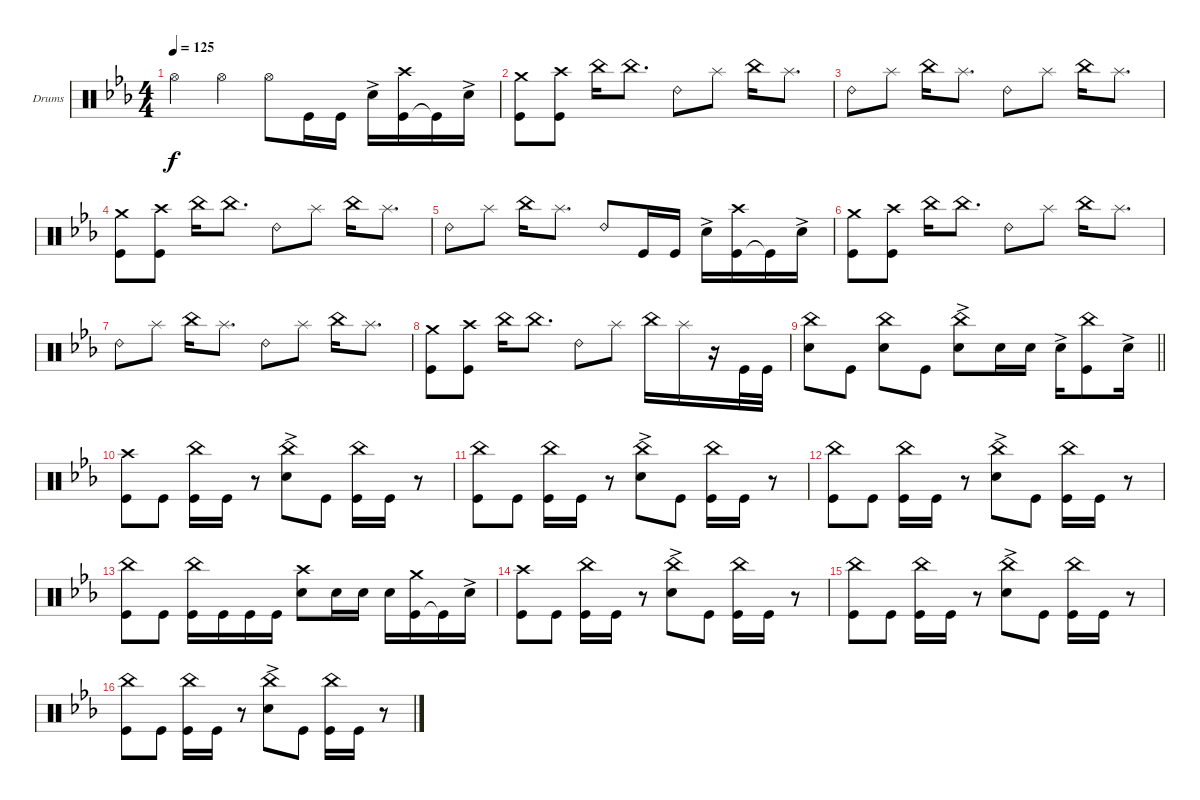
\bracketExtendMode groupsimilarinstruments
\firstSystemTrackNameOrientation horizontal
\otherSystemsTrackNameOrientation horizontal
\track ("Drumkit" "Drums") {instrument percussion}
\staff {score}
\articulation defaults
\ts (4 4)
\tempo 125
\clef neutral
\ks cminor "Hi-Hat (open)".4{dy f} "Hi-Hat (open)".4 "Hi-Hat (open)".8 "Kick (hit)".16 "Kick (hit)".16 "Snare (hit) 2"{ac}.16
("Kick (hit)" "Crash high (hit)").16 "Kick (hit)"{t}.16 "Snare (hit) 2"{ac}.16 |
("Crash medium (hit)" "Kick (hit)").8 ("Crash high (hit)" "Kick (hit)").8 "China (hit)".16 "China (hit)".8{d} "Ride (bell) 2".8 "Splash (hit)".8 "China (hit)".16 "Splash (hit)".8{d} |
"Ride (bell) 2".8 "Splash (hit)".8 "China (hit)".16 "Splash (hit)".8{d} "Ride (bell) 2".8 "Splash (hit)".8 "China (hit)".16 "Splash (hit)".8{d} |
("Crash medium (hit)" "Kick (hit)").8 ("Crash high (hit)" "Kick (hit)").8 "China (hit)".16 "China (hit)".8{d} "Ride (bell) 2".8 "Splash (hit)".8 "China (hit)".16 "Splash (hit)".8{d} |
"Ride (bell) 2".8 "Splash (hit)".8 "China (hit)".16 "Splash (hit)".8{d} "Ride (bell) 2".8 "Kick (hit)".16 "Kick (hit)".16 "Snare (hit) 2"{ac}.16 ("Kick (hit)" "Crash high (hit)").16 "Kick (hit)"{t}.16 "Snare (hit) 2"{ac}.16 |
("Crash medium (hit)" "Kick (hit)").8 ("Crash high (hit)" "Kick (hit)").8 "China (hit)".16 "China (hit)".8{d} "Ride (bell) 2".8 "Splash (hit)".8 "China (hit)".16 "Splash (hit)".8{d} |
"Ride (bell) 2".8 "Splash (hit)".8 "China (hit)".16 "Splash (hit)".8{d} "Ride (bell) 2".8 "Splash (hit)".8 "China (hit)".16 "Splash (hit)".8{d} |
("Crash medium (hit)" "Kick (hit)").8 ("Crash high (hit)" "Kick (hit)").8 "China (hit)".16 "China (hit)".8{d} "Ride (bell) 2".8 "Splash (hit)".8 "China (hit)".16 "Splash (hit)".16 r.16 "Kick (hit)".32 "Kick (hit)".32 |
\barLineRight lightlight
("Snare (hit) 2" "China (hit)").8 "Kick (hit)".8 ("Snare (hit) 2" "China (hit)").8 "Kick (hit)".8 ("Snare (hit) 2"{ac} "China (hit)").8 "Snare (hit) 2".16 "Snare (hit) 2".16 "Snare (hit) 2"{ac}.16 ("Kick (hit)" "China (hit)").8 "Snare (hit) 2"{ac}.16 |
("Kick (hit)" "Crash high (hit)").8 "Kick (hit)".8 ("Kick (hit)" "China (hit)").16 "Kick (hit)".16 r.8 ("Snare (hit) 2"{ac} "China (hit)").8 "Kick (hit)".8 ("Kick (hit)" "China (hit)").16 "Kick (hit)".16 r.8 |
("Kick (hit)" "China (hit)").8 "Kick (hit)".8 ("Kick (hit)" "China (hit)").16 "Kick (hit)".16 r.8 ("Snare (hit) 2"{ac} "China (hit)").8 "Kick (hit)".8 ("Kick (hit)" "China (hit)").16 "Kick (hit)".16 r.8 |
("Kick (hit)" "China (hit)").8 "Kick (hit)".8 ("Kick (hit)" "China (hit)").16 "Kick (hit)".16 r.8 ("Snare (hit) 2"{ac} "China (hit)").8 "Kick (hit)".8 ("Kick (hit)" "China (hit)").16 "Kick (hit)".16 r.8 |
("Kick (hit)" "China (hit)").8 "Kick (hit)".8 ("Kick (hit)" "China (hit)").16 "Kick (hit)".16 "Kick (hit)".16 "Kick (hit)".16 ("Snare (hit) 2" "Crash high (hit)").8 "Snare (hit) 2".16 "Snare (hit) 2".16 "Snare (hit) 2".16 ("Kick (hit)" "Crash medium (hit)").16 "Kick (hit)"{t}.16 "Snare (hit) 2"{ac}.16 |
("Kick (hit)" "Crash high (hit)").8 "Kick (hit)".8 ("Kick (hit)" "China (hit)").16 "Kick (hit)".16 r.8 ("Snare (hit) 2"{ac} "China (hit)").8 "Kick (hit)".8 ("Kick (hit)" "China (hit)").16 "Kick (hit)".16 r.8 |
("Kick (hit)" "China (hit)").8 "Kick (hit)".8 ("Kick (hit)" "China (hit)").16 "Kick (hit)".16 r.8 ("Snare (hit) 2"{ac} "China (hit)").8 "Kick (hit)".8 ("Kick (hit)" "China (hit)").16 "Kick (hit)".16 r.8 |
("Kick (hit)" "China (hit)").8 "Kick (hit)".8 ("Kick (hit)" "China (hit)").16 "Kick (hit)".16 r.8 ("Snare (hit) 2"{ac} "China (hit)").8 "Kick (hit)".8 ("Kick (hit)" "China (hit)").16 "Kick (hit)".16 r.8
